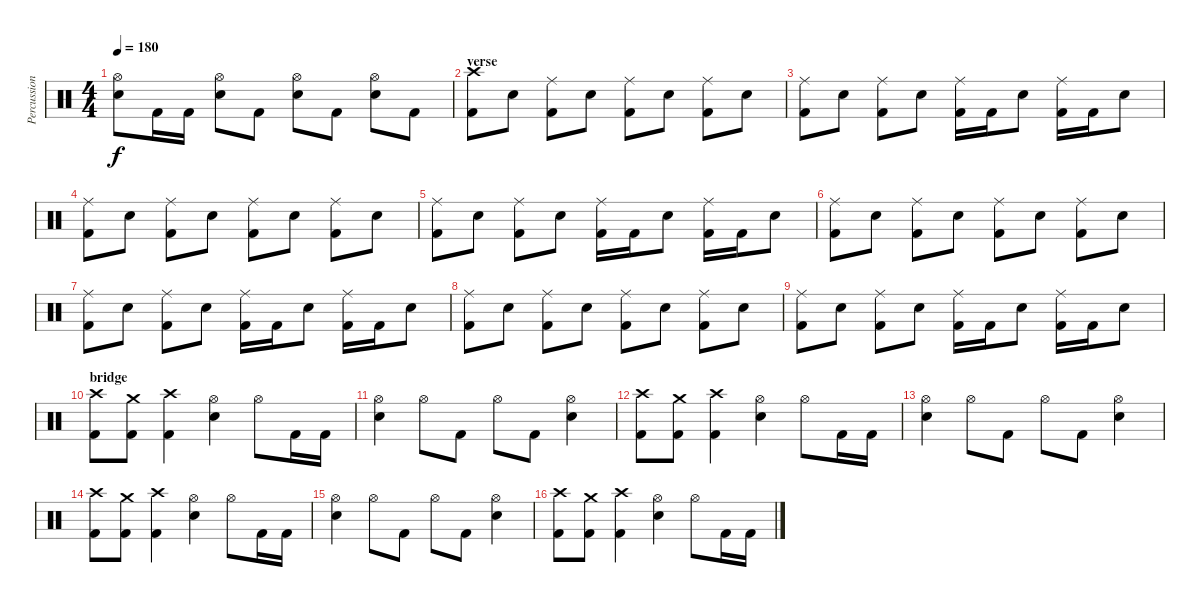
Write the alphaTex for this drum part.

\track ("Percussion" "Percussion") {instrument percussion}
\staff {score}
\articulation defaults
\ts (4 4)
\tempo 180
\clef neutral
\ks c
("Hi-Hat (open)" "Snare (hit) 2").8{dy f} "Kick (hit) 2".16 "Kick (hit) 2".16 ("Hi-Hat (open)" "Snare (hit) 2").8 "Kick (hit) 2".8 ("Hi-Hat (open)" "Snare (hit) 2").8 "Kick (hit) 2".8 ("Hi-Hat (open)" "Snare (hit) 2").8 "Kick (hit) 2".8 |
\section ("" "verse")
("Crash high (hit)" "Kick (hit) 2").8 "Snare (hit) 2".8 ("Ride (middle)" "Kick (hit) 2").8 "Snare (hit) 2".8 ("Ride (middle)" "Kick (hit) 2").8 "Snare (hit) 2".8 ("Ride (middle)" "Kick (hit) 2").8 "Snare (hit) 2".8 |
("Ride (middle)" "Kick (hit) 2").8 "Snare (hit) 2".8 ("Ride (middle)" "Kick (hit) 2").8 "Snare (hit) 2".8 ("Ride (middle)" "Kick (hit) 2").16 "Kick (hit) 2".16 "Snare (hit) 2".8 ("Ride (middle)" "Kick (hit) 2").16 "Kick (hit) 2".16 "Snare (hit) 2".8 |
("Ride (middle)" "Kick (hit) 2").8 "Snare (hit) 2".8 ("Ride (middle)" "Kick (hit) 2").8 "Snare (hit) 2".8 ("Ride (middle)" "Kick (hit) 2").8 "Snare (hit) 2".8 ("Ride (middle)" "Kick (hit) 2").8 "Snare (hit) 2".8 |
("Ride (middle)" "Kick (hit) 2").8 "Snare (hit) 2".8 ("Ride (middle)" "Kick (hit) 2").8 "Snare (hit) 2".8 ("Ride (middle)" "Kick (hit) 2").16 "Kick (hit) 2".16 "Snare (hit) 2".8 ("Ride (middle)" "Kick (hit) 2").16 "Kick (hit) 2".16 "Snare (hit) 2".8 |
("Ride (middle)" "Kick (hit) 2").8 "Snare (hit) 2".8 ("Ride (middle)" "Kick (hit) 2").8 "Snare (hit) 2".8 ("Ride (middle)" "Kick (hit) 2").8 "Snare (hit) 2".8 ("Ride (middle)" "Kick (hit) 2").8 "Snare (hit) 2".8 |
("Ride (middle)" "Kick (hit) 2").8 "Snare (hit) 2".8 ("Ride (middle)" "Kick (hit) 2").8 "Snare (hit) 2".8 ("Ride (middle)" "Kick (hit) 2").16 "Kick (hit) 2".16 "Snare (hit) 2".8 ("Ride (middle)" "Kick (hit) 2").16 "Kick (hit) 2".16 "Snare (hit) 2".8 |
("Ride (middle)" "Kick (hit) 2").8 "Snare (hit) 2".8 ("Ride (middle)" "Kick (hit) 2").8 "Snare (hit) 2".8 ("Ride (middle)" "Kick (hit) 2").8 "Snare (hit) 2".8 ("Ride (middle)" "Kick (hit) 2").8 "Snare (hit) 2".8 |
("Ride (middle)" "Kick (hit) 2").8 "Snare (hit) 2".8 ("Ride (middle)" "Kick (hit) 2").8 "Snare (hit) 2".8 ("Ride (middle)" "Kick (hit) 2").16 "Kick (hit) 2".16 "Snare (hit) 2".8 ("Ride (middle)" "Kick (hit) 2").16 "Kick (hit) 2".16 "Snare (hit) 2".8 |
\section ("" "bridge")
("Crash high (hit)" "Kick (hit) 2").8 ("Crash medium (hit)" "Kick (hit) 2").8 ("Crash high (hit)" "Kick (hit) 2").4 ("Hi-Hat (open)" "Snare (hit) 2").4 "Hi-Hat (open)".8 "Kick (hit) 2".16 "Kick (hit) 2".16 |
("Hi-Hat (open)" "Snare (hit) 2").4 "Hi-Hat (open)".8 "Kick (hit) 2".8 "Hi-Hat (open)".8 "Kick (hit) 2".8 ("Hi-Hat (open)" "Snare (hit) 2").4 |
("Crash high (hit)" "Kick (hit) 2").8 ("Crash medium (hit)" "Kick (hit) 2").8 ("Crash high (hit)" "Kick (hit) 2").4 ("Hi-Hat (open)" "Snare (hit) 2").4 "Hi-Hat (open)".8 "Kick (hit) 2".16 "Kick (hit) 2".16 |
("Hi-Hat (open)" "Snare (hit) 2").4 "Hi-Hat (open)".8 "Kick (hit) 2".8 "Hi-Hat (open)".8 "Kick (hit) 2".8 ("Hi-Hat (open)" "Snare (hit) 2").4 |
("Crash high (hit)" "Kick (hit) 2").8 ("Crash medium (hit)" "Kick (hit) 2").8 ("Crash high (hit)" "Kick (hit) 2").4 ("Hi-Hat (open)" "Snare (hit) 2").4 "Hi-Hat (open)".8 "Kick (hit) 2".16 "Kick (hit) 2".16 |
("Hi-Hat (open)" "Snare (hit) 2").4 "Hi-Hat (open)".8 "Kick (hit) 2".8 "Hi-Hat (open)".8 "Kick (hit) 2".8 ("Hi-Hat (open)" "Snare (hit) 2").4 |
("Crash high (hit)" "Kick (hit) 2").8 ("Crash medium (hit)" "Kick (hit) 2").8 ("Crash high (hit)" "Kick (hit) 2").4 ("Hi-Hat (open)" "Snare (hit) 2").4 "Hi-Hat (open)".8 "Kick (hit) 2".16 "Kick (hit) 2".16
